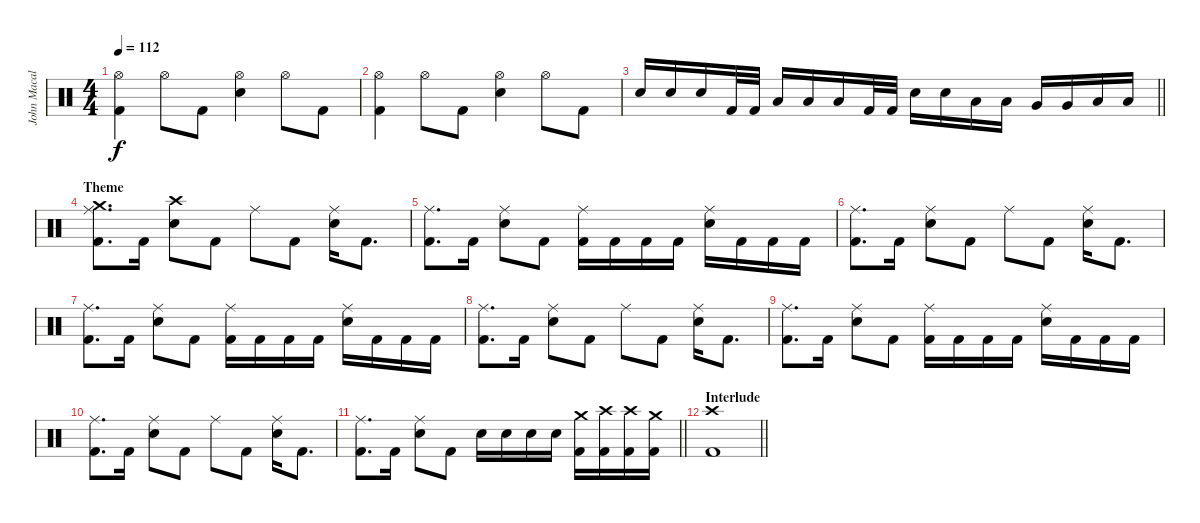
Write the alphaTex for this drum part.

\track ("John Macaluso" "John Macal") {instrument percussion}
\staff {score}
\articulation defaults
\ts (4 4)
\tempo 112
\clef neutral
\ks c
("Hi-Hat (open)" "Kick (hit) 2").4{dy f} "Hi-Hat (open)".8 "Kick (hit) 2".8 ("Hi-Hat (open)" "Snare (hit) 2").4 "Hi-Hat (open)".8 "Kick (hit) 2".8 |
("Hi-Hat (open)" "Kick (hit) 2").4 "Hi-Hat (open)".8 "Kick (hit) 2".8 ("Hi-Hat (open)" "Snare (hit) 2").4 "Hi-Hat (open)".8 "Kick (hit) 2".8 |
\barLineRight lightlight "Snare (hit) 2".16 "Snare (hit) 2".16 "Snare (hit) 2".16 "Kick (hit) 2".32 "Kick (hit) 2".32 "Low Tom (hit)".16 "Low Tom (hit)".16 "Low Tom (hit)".16 "Kick (hit) 2".32 "Kick (hit) 2".32 "Snare (hit) 2".16 "Snare (hit) 2".16 "Low Tom (hit)".16 "Low Tom (hit)".16 "Very Low Tom (hit)".16 "Very Low Tom (hit)".16 "Low Floor Tom (hit)".16 "Low Floor Tom (hit)".16
|
\section ("" "Theme")
("Crash medium (hit)" "Ride (middle)" "Kick (hit) 2").8{d} "Kick (hit) 2".16 ("Crash high (hit)" "Snare (hit) 2").8 "Kick (hit) 2".8 "Ride (middle)".8 "Kick (hit) 2".8 ("Ride (middle)" "Snare (hit) 2").16 "Kick (hit) 2".8{d} |
("Ride (middle)" "Kick (hit) 2").8{d} "Kick (hit) 2".16 ("Ride (middle)" "Snare (hit) 2").8 "Kick (hit) 2".8 ("Ride (middle)" "Kick (hit) 2").16 "Kick (hit) 2".16 "Kick (hit) 2".16 "Kick (hit) 2".16 ("Ride (middle)" "Snare (hit) 2").16 "Kick (hit) 2".16 "Kick (hit) 2".16 "Kick (hit) 2".16 |
("Ride (middle)" "Kick (hit) 2").8{d} "Kick (hit) 2".16 ("Ride (middle)" "Snare (hit) 2").8 "Kick (hit) 2".8 "Ride (middle)".8 "Kick (hit) 2".8 ("Ride (middle)" "Snare (hit) 2").16 "Kick (hit) 2".8{d} |
("Ride (middle)" "Kick (hit) 2").8{d} "Kick (hit) 2".16 ("Ride (middle)" "Snare (hit) 2").8 "Kick (hit) 2".8 ("Ride (middle)" "Kick (hit) 2").16 "Kick (hit) 2".16 "Kick (hit) 2".16 "Kick (hit) 2".16 ("Ride (middle)" "Snare (hit) 2").16 "Kick (hit) 2".16 "Kick (hit) 2".16 "Kick (hit) 2".16 |
("Ride (middle)" "Kick (hit) 2").8{d} "Kick (hit) 2".16 ("Ride (middle)" "Snare (hit) 2").8 "Kick (hit) 2".8 "Ride (middle)".8 "Kick (hit) 2".8 ("Ride (middle)" "Snare (hit) 2").16 "Kick (hit) 2".8{d} |
("Ride (middle)" "Kick (hit) 2").8{d} "Kick (hit) 2".16 ("Ride (middle)" "Snare (hit) 2").8 "Kick (hit) 2".8 ("Ride (middle)" "Kick (hit) 2").16 "Kick (hit) 2".16 "Kick (hit) 2".16 "Kick (hit) 2".16 ("Ride (middle)" "Snare (hit) 2").16 "Kick (hit) 2".16 "Kick (hit) 2".16 "Kick (hit) 2".16 |
("Ride (middle)" "Kick (hit) 2").8{d} "Kick (hit) 2".16 ("Ride (middle)" "Snare (hit) 2").8 "Kick (hit) 2".8 "Ride (middle)".8 "Kick (hit) 2".8 ("Ride (middle)" "Snare (hit) 2").16 "Kick (hit) 2".8{d} |
\barLineRight lightlight
("Ride (middle)" "Kick (hit) 2").8{d} "Kick (hit) 2".16 ("Ride (middle)" "Snare (hit) 2").8 "Kick (hit) 2".8 "Snare (hit) 2".16 "Snare (hit) 2".16 "Snare (hit) 2".16 "Snare (hit) 2".16 ("Crash medium (hit)" "Kick (hit) 2").16 ("Crash high (hit)" "Kick (hit) 2").16 ("Crash high (hit)" "Kick (hit) 2").16 ("Crash medium (hit)" "Kick (hit) 2").16 |
\section ("" "Interlude")
\barLineRight lightlight
("Crash high (hit)" "Kick (hit) 2").1
